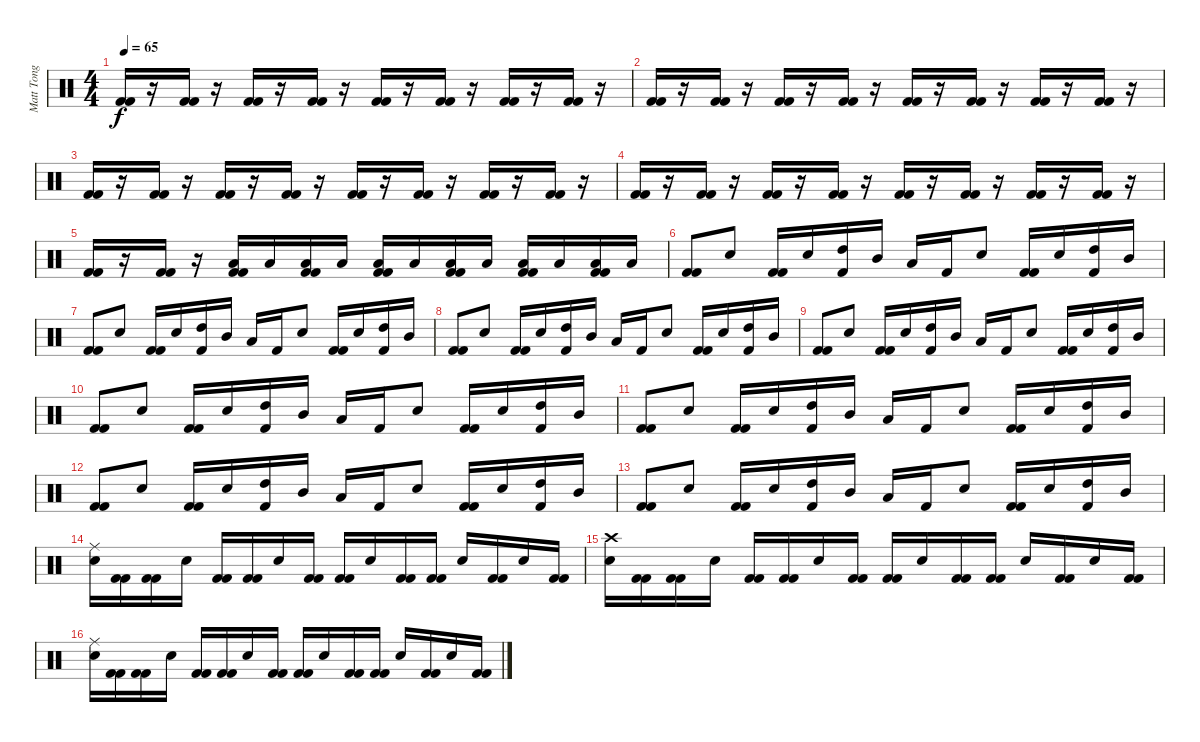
\track ("Matt Tong" "Matt Tong") {instrument percussion}
\staff {score}
\articulation defaults
\ts (4 4)
\tempo 65
\clef neutral
\ks c
("Kick (hit) 2" "Kick (hit) 2").16{dy f} r.16 ("Kick (hit) 2" "Kick (hit) 2").16 r.16 ("Kick (hit) 2" "Kick (hit) 2").16 r.16 ("Kick (hit) 2" "Kick (hit) 2").16 r.16 ("Kick (hit) 2" "Kick (hit) 2").16 r.16 ("Kick (hit) 2" "Kick (hit) 2").16 r.16 ("Kick (hit) 2" "Kick (hit) 2").16 r.16 ("Kick (hit) 2" "Kick (hit) 2").16 r.16 |
("Kick (hit) 2" "Kick (hit) 2").16 r.16 ("Kick (hit) 2" "Kick (hit) 2").16 r.16 ("Kick (hit) 2" "Kick (hit) 2").16 r.16 ("Kick (hit) 2" "Kick (hit) 2").16 r.16 ("Kick (hit) 2" "Kick (hit) 2").16 r.16 ("Kick (hit) 2" "Kick (hit) 2").16 r.16 ("Kick (hit) 2" "Kick (hit) 2").16 r.16 ("Kick (hit) 2" "Kick (hit) 2").16 r.16 |
("Kick (hit) 2" "Kick (hit) 2").16 r.16 ("Kick (hit) 2" "Kick (hit) 2").16 r.16 ("Kick (hit) 2" "Kick (hit) 2").16 r.16 ("Kick (hit) 2" "Kick (hit) 2").16 r.16 ("Kick (hit) 2" "Kick (hit) 2").16 r.16 ("Kick (hit) 2" "Kick (hit) 2").16 r.16 ("Kick (hit) 2" "Kick (hit) 2").16 r.16 ("Kick (hit) 2" "Kick (hit) 2").16 r.16 |
("Kick (hit) 2" "Kick (hit) 2").16 r.16 ("Kick (hit) 2" "Kick (hit) 2").16 r.16 ("Kick (hit) 2" "Kick (hit) 2").16 r.16 ("Kick (hit) 2" "Kick (hit) 2").16 r.16 ("Kick (hit) 2" "Kick (hit) 2").16 r.16 ("Kick (hit) 2" "Kick (hit) 2").16 r.16 ("Kick (hit) 2" "Kick (hit) 2").16 r.16 ("Kick (hit) 2" "Kick (hit) 2").16 r.16 |
("Kick (hit) 2" "Kick (hit) 2").16 r.16 ("Kick (hit) 2" "Kick (hit) 2").16 r.16 ("Low Tom (hit)" "Kick (hit) 2" "Kick (hit) 2").16 "Low Tom (hit)".16 ("Low Tom (hit)" "Kick (hit) 2" "Kick (hit) 2").16 "Low Tom (hit)".16 ("Low Tom (hit)" "Kick (hit) 2" "Kick (hit) 2").16 "Low Tom (hit)".16 ("Low Tom (hit)" "Kick (hit) 2" "Kick (hit) 2").16 "Low Tom (hit)".16 ("Low Tom (hit)" "Kick (hit) 2" "Kick (hit) 2").16 "Low Tom (hit)".16 ("Low Tom (hit)" "Kick (hit) 2" "Kick (hit) 2").16 "Low Tom (hit)".16 |
("Kick (hit) 2" "Kick (hit) 2").8 "Snare (hit) 2".8 ("Kick (hit) 2" "Kick (hit) 2").16 "Snare (hit) 2".16 ("High Tom (hit)" "Kick (hit) 2").16 "Mid Tom (hit)".16 "Low Tom (hit)".16 "Kick (hit) 2".16 "Snare (hit) 2".8 ("Kick (hit) 2" "Kick (hit) 2").16 "Snare (hit) 2".16 ("High Tom (hit)" "Kick (hit) 2").16 "Mid Tom (hit)".16 |
("Kick (hit) 2" "Kick (hit) 2").8 "Snare (hit) 2".8 ("Kick (hit) 2" "Kick (hit) 2").16 "Snare (hit) 2".16 ("High Tom (hit)" "Kick (hit) 2").16 "Mid Tom (hit)".16 "Low Tom (hit)".16 "Kick (hit) 2".16 "Snare (hit) 2".8 ("Kick (hit) 2" "Kick (hit) 2").16 "Snare (hit) 2".16 ("High Tom (hit)" "Kick (hit) 2").16 "Mid Tom (hit)".16 |
("Kick (hit) 2" "Kick (hit) 2").8 "Snare (hit) 2".8 ("Kick (hit) 2" "Kick (hit) 2").16 "Snare (hit) 2".16 ("High Tom (hit)" "Kick (hit) 2").16 "Mid Tom (hit)".16 "Low Tom (hit)".16 "Kick (hit) 2".16 "Snare (hit) 2".8 ("Kick (hit) 2" "Kick (hit) 2").16 "Snare (hit) 2".16 ("High Tom (hit)" "Kick (hit) 2").16 "Mid Tom (hit)".16 |
("Kick (hit) 2" "Kick (hit) 2").8 "Snare (hit) 2".8 ("Kick (hit) 2" "Kick (hit) 2").16 "Snare (hit) 2".16 ("High Tom (hit)" "Kick (hit) 2").16 "Mid Tom (hit)".16 "Low Tom (hit)".16 "Kick (hit) 2".16 "Snare (hit) 2".8 ("Kick (hit) 2" "Kick (hit) 2").16 "Snare (hit) 2".16 ("High Tom (hit)" "Kick (hit) 2").16 "Mid Tom (hit)".16 |
("Kick (hit) 2" "Kick (hit) 2").8 "Snare (hit) 2".8 ("Kick (hit) 2" "Kick (hit) 2").16 "Snare (hit) 2".16 ("High Tom (hit)" "Kick (hit) 2").16 "Mid Tom (hit)".16 "Low Tom (hit)".16 "Kick (hit) 2".16 "Snare (hit) 2".8 ("Kick (hit) 2" "Kick (hit) 2").16 "Snare (hit) 2".16 ("High Tom (hit)" "Kick (hit) 2").16 "Mid Tom (hit)".16 |
("Kick (hit) 2" "Kick (hit) 2").8 "Snare (hit) 2".8 ("Kick (hit) 2" "Kick (hit) 2").16 "Snare (hit) 2".16 ("High Tom (hit)" "Kick (hit) 2").16 "Mid Tom (hit)".16 "Low Tom (hit)".16 "Kick (hit) 2".16 "Snare (hit) 2".8 ("Kick (hit) 2" "Kick (hit) 2").16 "Snare (hit) 2".16 ("High Tom (hit)" "Kick (hit) 2").16 "Mid Tom (hit)".16 |
("Kick (hit) 2" "Kick (hit) 2").8 "Snare (hit) 2".8 ("Kick (hit) 2" "Kick (hit) 2").16 "Snare (hit) 2".16 ("High Tom (hit)" "Kick (hit) 2").16 "Mid Tom (hit)".16 "Low Tom (hit)".16 "Kick (hit) 2".16 "Snare (hit) 2".8 ("Kick (hit) 2" "Kick (hit) 2").16 "Snare (hit) 2".16 ("High Tom (hit)" "Kick (hit) 2").16 "Mid Tom (hit)".16 |
("Kick (hit) 2" "Kick (hit) 2").8 "Snare (hit) 2".8 ("Kick (hit) 2" "Kick (hit) 2").16 "Snare (hit) 2".16 ("High Tom (hit)" "Kick (hit) 2").16 "Mid Tom (hit)".16 "Low Tom (hit)".16 "Kick (hit) 2".16 "Snare (hit) 2".8 ("Kick (hit) 2" "Kick (hit) 2").16 "Snare (hit) 2".16 ("High Tom (hit)" "Kick (hit) 2").16 "Mid Tom (hit)".16 |
("Ride (middle)" "Snare (hit) 2").16 ("Kick (hit) 2" "Kick (hit) 2").16 ("Kick (hit) 2" "Kick (hit) 2").16 "Snare (hit) 2".16 ("Kick (hit) 2" "Kick (hit) 2").16 ("Kick (hit) 2" "Kick (hit) 2").16 "Snare (hit) 2".16 ("Kick (hit) 2" "Kick (hit) 2").16 ("Kick (hit) 2" "Kick (hit) 2").16 "Snare (hit) 2".16 ("Kick (hit) 2" "Kick (hit) 2").16 ("Kick (hit) 2" "Kick (hit) 2").16 "Snare (hit) 2".16 ("Kick (hit) 2" "Kick (hit) 2").16 "Snare (hit) 2".16 ("Kick (hit) 2" "Kick (hit) 2").16 |
("Crash high (hit)" "Snare (hit) 2").16 ("Kick (hit) 2" "Kick (hit) 2").16 ("Kick (hit) 2" "Kick (hit) 2").16 "Snare (hit) 2".16 ("Kick (hit) 2" "Kick (hit) 2").16 ("Kick (hit) 2" "Kick (hit) 2").16 "Snare (hit) 2".16 ("Kick (hit) 2" "Kick (hit) 2").16 ("Kick (hit) 2" "Kick (hit) 2").16 "Snare (hit) 2".16 ("Kick (hit) 2" "Kick (hit) 2").16 ("Kick (hit) 2" "Kick (hit) 2").16 "Snare (hit) 2".16 ("Kick (hit) 2" "Kick (hit) 2").16 "Snare (hit) 2".16 ("Kick (hit) 2" "Kick (hit) 2").16 |
("Ride (middle)" "Snare (hit) 2").16 ("Kick (hit) 2" "Kick (hit) 2").16 ("Kick (hit) 2" "Kick (hit) 2").16 "Snare (hit) 2".16 ("Kick (hit) 2" "Kick (hit) 2").16 ("Kick (hit) 2" "Kick (hit) 2").16 "Snare (hit) 2".16 ("Kick (hit) 2" "Kick (hit) 2").16 ("Kick (hit) 2" "Kick (hit) 2").16 "Snare (hit) 2".16 ("Kick (hit) 2" "Kick (hit) 2").16 ("Kick (hit) 2" "Kick (hit) 2").16 "Snare (hit) 2".16 ("Kick (hit) 2" "Kick (hit) 2").16 "Snare (hit) 2".16 ("Kick (hit) 2" "Kick (hit) 2").16
